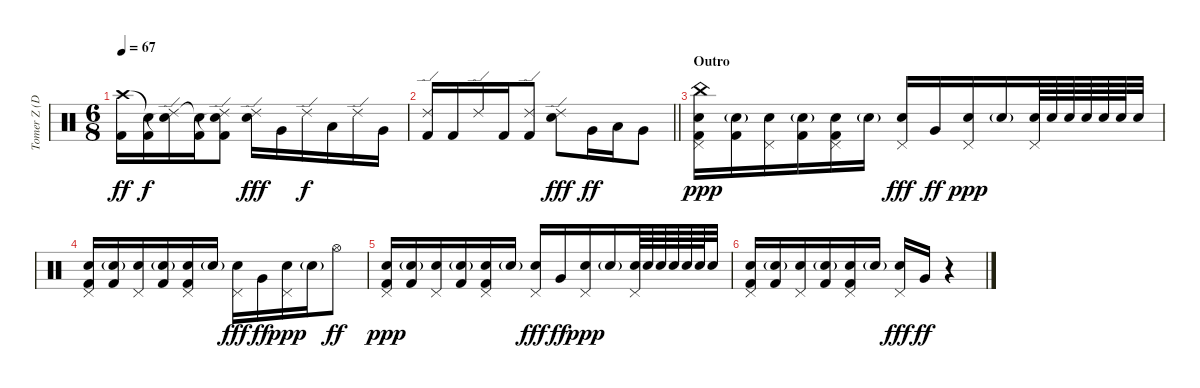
\track ("Tomer Z (Drums)" "Tomer Z (D") {instrument percussion}
\staff {score}
\articulation defaults
\ts (6 8)
\tempo 67
\clef neutral
\ks c
("Crash high (hit)" "Kick (hit) 2").16{dy ff} ("Snare (hit)"{t} "Kick (hit) 2").16{dy f} ("Ride (edge) 2" "Snare (hit)"{t}).16 ("Snare (hit)"{t} "Kick (hit) 2").16 ("Ride (edge) 2" "Snare (hit)"{t} "Kick (hit) 2").8 ("Ride (edge) 2" "Snare (hit) 2").16{dy fff} "Very Low Tom (hit)".16 "Ride (edge) 2".16{dy f} "Low Tom (hit)".16 "Ride (edge) 2".16 "Very Low Tom (hit)".16 |
\barLineRight lightlight
("Ride (edge) 2" "Kick (hit) 2").16 "Kick (hit) 2".16 "Ride (edge) 2".16 "Kick (hit) 2".16 ("Ride (edge) 2" "Kick (hit) 2").8 ("Ride (edge) 2" "Snare (hit) 2").8{dy fff} "Very Low Tom (hit)".16{dy ff} "Low Tom (hit)".16 "Very Low Tom (hit)".8 |
\section ("" "Outro")
("Pedal Hi-Hat (hit)" "China (hit)" "Snare (hit) 2" "Kick (hit) 2").16{dy ppp} ("Snare (hit) 2"{g} "Kick (hit) 2").16 ("Pedal Hi-Hat (hit)" "Snare (hit) 2").16 ("Snare (hit) 2"{g} "Kick (hit) 2").16 ("Pedal Hi-Hat (hit)" "Snare (hit) 2" "Kick (hit) 2").16 "Snare (hit) 2"{g}.16 ("Pedal Hi-Hat (hit)" "Snare (hit) 2").16{dy fff} "Very Low Tom (hit)".16{dy ff} ("Pedal Hi-Hat (hit)" "Snare (hit) 2").16{dy ppp} "Snare (hit) 2"{g}.16 ("Pedal Hi-Hat (hit)" "Snare (hit) 2").64 "Snare (hit) 2".64 "Snare (hit) 2".64 "Snare (hit) 2".64 "Snare (hit) 2".64 "Snare (hit) 2".64 "Snare (hit) 2".32 |
("Pedal Hi-Hat (hit)" "Snare (hit) 2" "Kick (hit) 2").16 ("Snare (hit) 2"{g} "Kick (hit) 2").16 ("Pedal Hi-Hat (hit)" "Snare (hit) 2").16 ("Snare (hit) 2"{g} "Kick (hit) 2").16 ("Pedal Hi-Hat (hit)" "Snare (hit) 2" "Kick (hit) 2").16 "Snare (hit) 2"{g}.16 ("Pedal Hi-Hat (hit)" "Snare (hit) 2").16{dy fff} "Very Low Tom (hit)".16{dy ff} ("Pedal Hi-Hat (hit)" "Snare (hit) 2").16{dy ppp} "Snare (hit) 2"{g}.16 "Hi-Hat (open)".8{dy ff} |
("Pedal Hi-Hat (hit)" "Snare (hit) 2" "Kick (hit) 2").16{dy ppp} ("Snare (hit) 2"{g} "Kick (hit) 2").16 ("Pedal Hi-Hat (hit)" "Snare (hit) 2").16 ("Snare (hit) 2"{g} "Kick (hit) 2").16 ("Pedal Hi-Hat (hit)" "Snare (hit) 2" "Kick (hit) 2").16 "Snare (hit) 2"{g}.16 ("Pedal Hi-Hat (hit)" "Snare (hit) 2").16{dy fff} "Very Low Tom (hit)".16{dy ff} ("Pedal Hi-Hat (hit)" "Snare (hit) 2").16{dy ppp} "Snare (hit) 2"{g}.16 ("Pedal Hi-Hat (hit)" "Snare (hit) 2").64 "Snare (hit) 2".64 "Snare (hit) 2".64 "Snare (hit) 2".64 "Snare (hit) 2".64 "Snare (hit) 2".64 "Snare (hit) 2".32 |
("Pedal Hi-Hat (hit)" "Snare (hit) 2" "Kick (hit) 2").16 ("Snare (hit) 2"{g} "Kick (hit) 2").16 ("Pedal Hi-Hat (hit)" "Snare (hit) 2").16 ("Snare (hit) 2"{g} "Kick (hit) 2").16 ("Pedal Hi-Hat (hit)" "Snare (hit) 2" "Kick (hit) 2").16 "Snare (hit) 2"{g}.16 ("Pedal Hi-Hat (hit)" "Snare (hit) 2").16{dy fff} "Very Low Tom (hit)".16{dy ff} r.4
